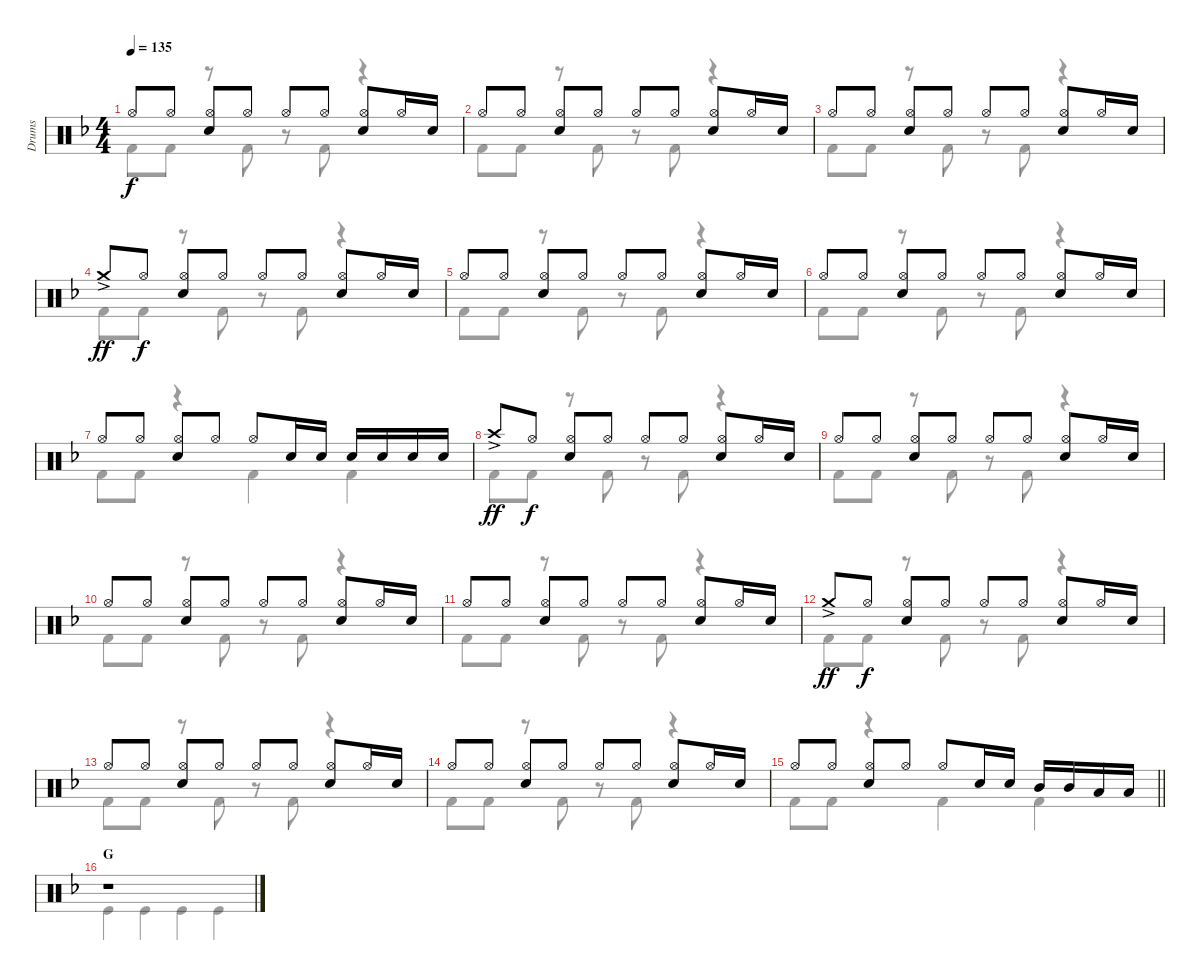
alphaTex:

\track ("Drums" "Drums") {instrument percussion}
\staff {score}
\articulation defaults
\voice
\ts (4 4)
\tempo 135
\clef neutral
\ks f "Hi-Hat (open)".8{dy f} "Hi-Hat (open)".8
("Hi-Hat (open)" "Snare (hit) 2").8 "Hi-Hat (open)".8 "Hi-Hat (open)".8 "Hi-Hat (open)".8 ("Hi-Hat (open)" "Snare (hit) 2").8 "Hi-Hat (open)".16 "Snare (hit) 2".16 |
"Hi-Hat (open)".8 "Hi-Hat (open)".8 ("Hi-Hat (open)" "Snare (hit) 2").8 "Hi-Hat (open)".8 "Hi-Hat (open)".8 "Hi-Hat (open)".8 ("Hi-Hat (open)" "Snare (hit) 2").8 "Hi-Hat (open)".16 "Snare (hit) 2".16 |
"Hi-Hat (open)".8 "Hi-Hat (open)".8 ("Hi-Hat (open)" "Snare (hit) 2").8 "Hi-Hat (open)".8 "Hi-Hat (open)".8 "Hi-Hat (open)".8 ("Hi-Hat (open)" "Snare (hit) 2").8 "Hi-Hat (open)".16 "Snare (hit) 2".16 |
"Crash medium (hit)"{ac}.8{dy ff} "Hi-Hat (open)".8{dy f} ("Hi-Hat (open)" "Snare (hit) 2").8 "Hi-Hat (open)".8 "Hi-Hat (open)".8 "Hi-Hat (open)".8 ("Hi-Hat (open)" "Snare (hit) 2").8 "Hi-Hat (open)".16 "Snare (hit) 2".16 |
"Hi-Hat (open)".8 "Hi-Hat (open)".8 ("Hi-Hat (open)" "Snare (hit) 2").8 "Hi-Hat (open)".8 "Hi-Hat (open)".8 "Hi-Hat (open)".8 ("Hi-Hat (open)" "Snare (hit) 2").8 "Hi-Hat (open)".16 "Snare (hit) 2".16 |
"Hi-Hat (open)".8 "Hi-Hat (open)".8 ("Hi-Hat (open)" "Snare (hit) 2").8 "Hi-Hat (open)".8 "Hi-Hat (open)".8 "Hi-Hat (open)".8 ("Hi-Hat (open)" "Snare (hit) 2").8 "Hi-Hat (open)".16 "Snare (hit) 2".16 |
"Hi-Hat (open)".8 "Hi-Hat (open)".8 ("Hi-Hat (open)" "Snare (hit) 2").8 "Hi-Hat (open)".8 "Hi-Hat (open)".8 "Snare (hit) 2".16 "Snare (hit) 2".16 "Snare (hit) 2".16 "Snare (hit) 2".16 "Snare (hit) 2".16 "Snare (hit) 2".16 |
"Crash high (hit)"{ac}.8{dy ff} "Hi-Hat (open)".8{dy f} ("Hi-Hat (open)" "Snare (hit) 2").8 "Hi-Hat (open)".8 "Hi-Hat (open)".8 "Hi-Hat (open)".8 ("Hi-Hat (open)" "Snare (hit) 2").8 "Hi-Hat (open)".16 "Snare (hit) 2".16 |
"Hi-Hat (open)".8 "Hi-Hat (open)".8 ("Hi-Hat (open)" "Snare (hit) 2").8 "Hi-Hat (open)".8 "Hi-Hat (open)".8 "Hi-Hat (open)".8 ("Hi-Hat (open)" "Snare (hit) 2").8 "Hi-Hat (open)".16 "Snare (hit) 2".16 |
"Hi-Hat (open)".8 "Hi-Hat (open)".8 ("Hi-Hat (open)" "Snare (hit) 2").8 "Hi-Hat (open)".8 "Hi-Hat (open)".8 "Hi-Hat (open)".8 ("Hi-Hat (open)" "Snare (hit) 2").8 "Hi-Hat (open)".16 "Snare (hit) 2".16 |
"Hi-Hat (open)".8 "Hi-Hat (open)".8 ("Hi-Hat (open)" "Snare (hit) 2").8 "Hi-Hat (open)".8 "Hi-Hat (open)".8 "Hi-Hat (open)".8 ("Hi-Hat (open)" "Snare (hit) 2").8 "Hi-Hat (open)".16 "Snare (hit) 2".16 |
"Crash medium (hit)"{ac}.8{dy ff} "Hi-Hat (open)".8{dy f} ("Hi-Hat (open)" "Snare (hit) 2").8 "Hi-Hat (open)".8 "Hi-Hat (open)".8 "Hi-Hat (open)".8 ("Hi-Hat (open)" "Snare (hit) 2").8 "Hi-Hat (open)".16 "Snare (hit) 2".16 |
"Hi-Hat (open)".8 "Hi-Hat (open)".8 ("Hi-Hat (open)" "Snare (hit) 2").8 "Hi-Hat (open)".8 "Hi-Hat (open)".8 "Hi-Hat (open)".8 ("Hi-Hat (open)" "Snare (hit) 2").8 "Hi-Hat (open)".16 "Snare (hit) 2".16 |
"Hi-Hat (open)".8 "Hi-Hat (open)".8 ("Hi-Hat (open)" "Snare (hit) 2").8 "Hi-Hat (open)".8 "Hi-Hat (open)".8 "Hi-Hat (open)".8 ("Hi-Hat (open)" "Snare (hit) 2").8 "Hi-Hat (open)".16 "Snare (hit) 2".16 |
\barLineRight lightlight "Hi-Hat (open)".8 "Hi-Hat (open)".8
("Hi-Hat (open)" "Snare (hit) 2").8 "Hi-Hat (open)".8 "Hi-Hat (open)".8 "Snare (hit) 2".16 "Snare (hit) 2".16 "Mid Tom (hit)".16 "Mid Tom (hit)".16 "Low Tom (hit)".16 "Low Tom (hit)".16 |
\section ("" "G")
r.1
\voice
\clef neutral
\ottava regular
\simile none
\ks f "Kick (hit) 2".8{dy f} "Kick (hit) 2".8
r.8 "Kick (hit) 2".8 r.8 "Kick (hit) 2".8 r.4 |
"Kick (hit) 2".8 "Kick (hit) 2".8 r.8 "Kick (hit) 2".8 r.8 "Kick (hit) 2".8 r.4 |
"Kick (hit) 2".8 "Kick (hit) 2".8 r.8 "Kick (hit) 2".8 r.8 "Kick (hit) 2".8 r.4 |
"Kick (hit) 2".8 "Kick (hit) 2".8 r.8 "Kick (hit) 2".8 r.8 "Kick (hit) 2".8 r.4 |
"Kick (hit) 2".8 "Kick (hit) 2".8 r.8 "Kick (hit) 2".8 r.8 "Kick (hit) 2".8 r.4 |
"Kick (hit) 2".8 "Kick (hit) 2".8 r.8 "Kick (hit) 2".8 r.8 "Kick (hit) 2".8 r.4 |
"Kick (hit) 2".8 "Kick (hit) 2".8 r.4 "Kick (hit) 2".4 "Kick (hit) 2".4 |
"Kick (hit) 2".8 "Kick (hit) 2".8 r.8 "Kick (hit) 2".8 r.8 "Kick (hit) 2".8 r.4 |
"Kick (hit) 2".8 "Kick (hit) 2".8 r.8 "Kick (hit) 2".8 r.8 "Kick (hit) 2".8 r.4 |
"Kick (hit) 2".8 "Kick (hit) 2".8 r.8 "Kick (hit) 2".8 r.8 "Kick (hit) 2".8 r.4 |
"Kick (hit) 2".8 "Kick (hit) 2".8 r.8 "Kick (hit) 2".8 r.8 "Kick (hit) 2".8 r.4 |
"Kick (hit) 2".8 "Kick (hit) 2".8 r.8 "Kick (hit) 2".8 r.8 "Kick (hit) 2".8 r.4 |
"Kick (hit) 2".8 "Kick (hit) 2".8 r.8 "Kick (hit) 2".8 r.8 "Kick (hit) 2".8 r.4 |
"Kick (hit) 2".8 "Kick (hit) 2".8 r.8 "Kick (hit) 2".8 r.8 "Kick (hit) 2".8 r.4 |
\barLineRight lightlight "Kick (hit) 2".8 "Kick (hit) 2".8
r.4 "Kick (hit) 2".4 "Kick (hit) 2".4 |
"Kick (hit)".4 "Kick (hit)".4 "Kick (hit)".4 "Kick (hit)".4
